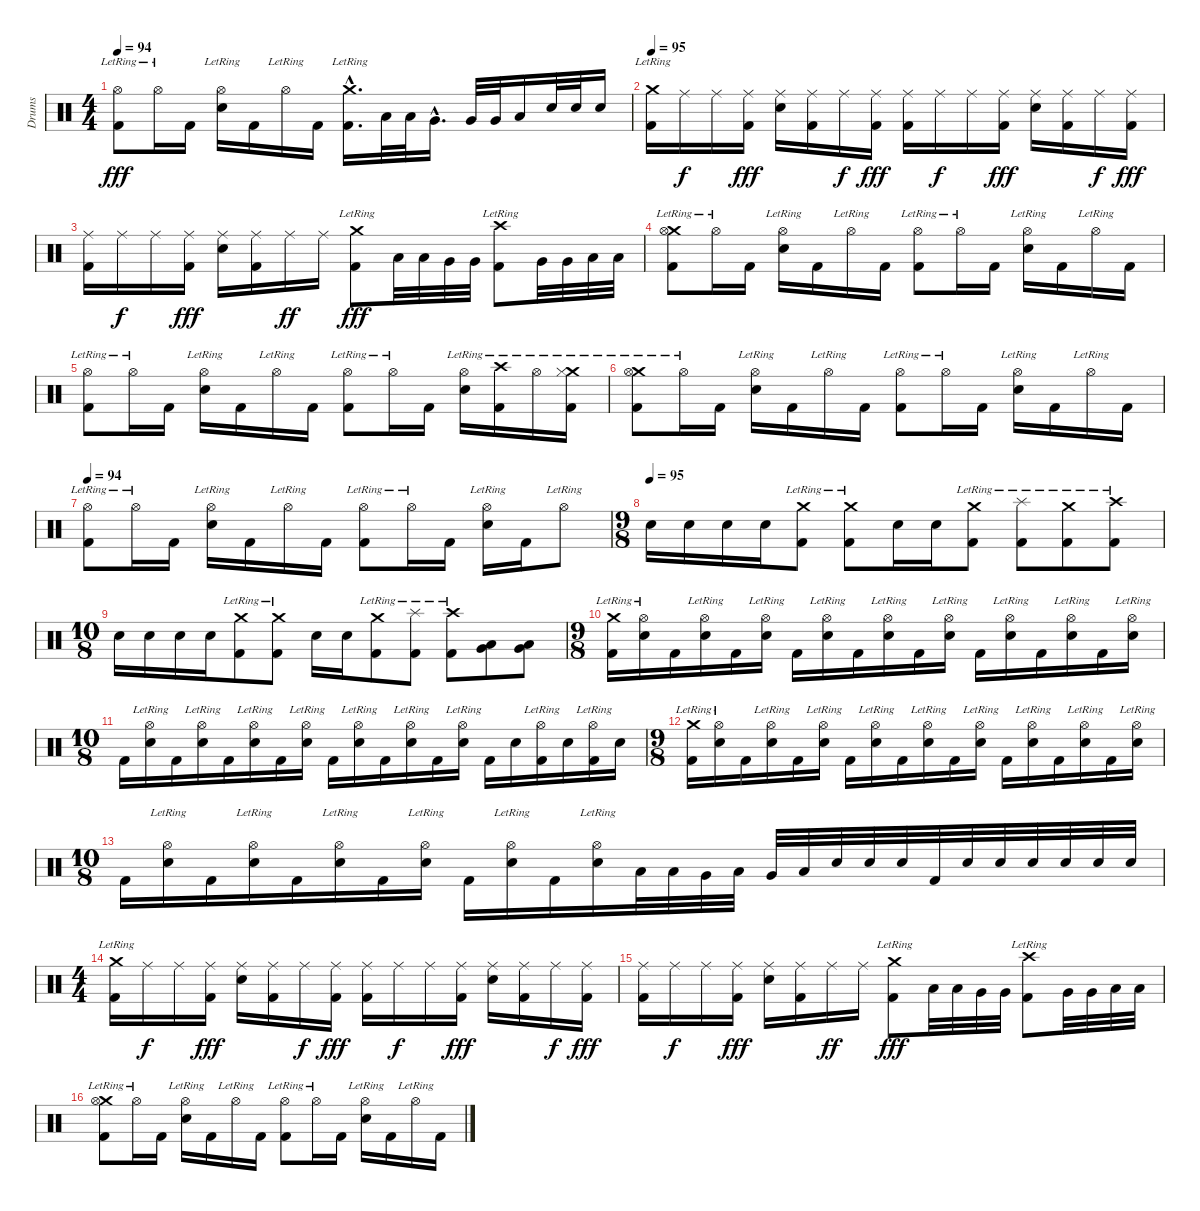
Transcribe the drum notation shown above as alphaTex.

\track ("Drums" "Drums") {instrument percussion}
\staff {score}
\articulation defaults
\ts (4 4)
\tempo 94
\clef neutral
\ks c
("Hi-Hat (open)"{lr} "Kick (hit) 2").8{dy fff} "Hi-Hat (open)"{lr}.16 "Kick (hit) 2".16 ("Hi-Hat (open)"{lr} "Electric Snare (hit)").16 "Kick (hit) 2".16 "Hi-Hat (open)"{lr}.16 "Kick (hit) 2".16 ("Crash medium (hit)"{hac lr} "Kick (hit) 2"{hac}).16{d} "Low Tom (hit)".32 "Low Tom (hit)".32 "Very Low Tom (hit)"{hac}.16{d} "Very Low Tom (hit)".32 "Very Low Tom (hit)".32 "Low Floor Tom (hit)".16 "Electric Snare (hit)".32 "Electric Snare (hit)".32 "Electric Snare (hit)".16 |
\tempo 95
("Crash medium (hit)"{lr} "Kick (hit) 2").16 "Ride (middle)".16{dy f} "Ride (middle)".16 ("Ride (middle)" "Kick (hit) 2").16{dy fff} ("Ride (middle)" "Electric Snare (hit)").16 ("Ride (middle)" "Kick (hit) 2").16 "Ride (middle)".16{dy f} ("Ride (middle)" "Kick (hit) 2").16{dy fff} ("Ride (middle)" "Kick (hit) 2").16 "Ride (middle)".16{dy f} "Ride (middle)".16 ("Ride (middle)" "Kick (hit) 2").16{dy fff} ("Ride (middle)" "Electric Snare (hit)").16 ("Ride (middle)" "Kick (hit) 2").16 "Ride (middle)".16{dy f} ("Ride (middle)" "Kick (hit) 2").16{dy fff} |
("Ride (middle)" "Kick (hit) 2").16 "Ride (middle)".16{dy f} "Ride (middle)".16 ("Ride (middle)" "Kick (hit) 2").16{dy fff} ("Ride (middle)" "Electric Snare (hit)").16 ("Ride (middle)" "Kick (hit) 2").16 "Ride (middle)".16{dy ff} "Ride (middle)".16 ("Crash medium (hit)"{lr} "Kick (hit) 2").8{dy fff} "Low Tom (hit)".32 "Low Tom (hit)".32 "Very Low Tom (hit)".32 "Very Low Tom (hit)".32 ("Crash high (hit)"{lr} "Kick (hit) 2").8 "Very Low Tom (hit)".32 "Very Low Tom (hit)".32 "Low Floor Tom (hit)".32 "Low Floor Tom (hit)".32 |
("Crash medium (hit)"{lr} "Hi-Hat (open)"{lr} "Kick (hit) 2").8 "Hi-Hat (open)"{lr}.16 "Kick (hit) 2".16 ("Hi-Hat (open)"{lr} "Electric Snare (hit)").16 "Kick (hit) 2".16 "Hi-Hat (open)"{lr}.16 "Kick (hit) 2".16 ("Hi-Hat (open)"{lr} "Kick (hit) 2").8 "Hi-Hat (open)"{lr}.16 "Kick (hit) 2".16 ("Hi-Hat (open)"{lr} "Electric Snare (hit)").16 "Kick (hit) 2".16 "Hi-Hat (open)"{lr}.16 "Kick (hit) 2".16 |
("Hi-Hat (open)"{lr} "Kick (hit) 2").8 "Hi-Hat (open)"{lr}.16 "Kick (hit) 2".16 ("Hi-Hat (open)"{lr} "Electric Snare (hit)").16 "Kick (hit) 2".16 "Hi-Hat (open)"{lr}.16 "Kick (hit) 2".16 ("Hi-Hat (open)"{lr} "Kick (hit) 2").8 "Hi-Hat (open)"{lr}.16 "Kick (hit) 2".16 ("Hi-Hat (open)"{lr} "Electric Snare (hit)").16 ("Crash high (hit)"{lr} "Kick (hit) 2").16 "Hi-Hat (open)"{lr}.16 ("Crash medium (hit)"{lr} "Hi-Hat (closed)" "Kick (hit) 2").16 |
("Crash medium (hit)"{lr} "Hi-Hat (open)"{lr} "Kick (hit) 2").8 "Hi-Hat (open)"{lr}.16 "Kick (hit) 2".16 ("Hi-Hat (open)"{lr} "Electric Snare (hit)").16 "Kick (hit) 2".16 "Hi-Hat (open)"{lr}.16 "Kick (hit) 2".16 ("Hi-Hat (open)"{lr} "Kick (hit) 2").8 "Hi-Hat (open)"{lr}.16 "Kick (hit) 2".16 ("Hi-Hat (open)"{lr} "Electric Snare (hit)").16 "Kick (hit) 2".16 "Hi-Hat (open)"{lr}.16 "Kick (hit) 2".16 |
\tempo 94
("Hi-Hat (open)"{lr} "Kick (hit) 2").8 "Hi-Hat (open)"{lr}.16 "Kick (hit) 2".16 ("Hi-Hat (open)"{lr} "Electric Snare (hit)").16 "Kick (hit) 2".16 "Hi-Hat (open)"{lr}.16 "Kick (hit) 2".16 ("Hi-Hat (open)"{lr} "Kick (hit) 2").8 "Hi-Hat (open)"{lr}.16 "Kick (hit) 2".16 ("Hi-Hat (open)"{lr} "Electric Snare (hit)").16 "Kick (hit) 2".16 "Hi-Hat (open)"{lr}.8 |
\ts (9 8)
\tempo (95)
"Electric Snare (hit)".16 "Electric Snare (hit)".16 "Electric Snare (hit)".16 "Electric Snare (hit)".16 ("Crash medium (hit)"{lr} "Kick (hit) 2").8 ("Crash medium (hit)"{lr} "Kick (hit) 2").8 "Electric Snare (hit)".16 "Electric Snare (hit)".16 ("Crash medium (hit)"{lr} "Kick (hit) 2").8 ("Splash (hit)"{lr} "Kick (hit) 2").8 ("Crash medium (hit)"{lr} "Kick (hit) 2").8 ("Crash high (hit)"{lr} "Kick (hit) 2").8 |
\ts (10 8)
"Electric Snare (hit)".16 "Electric Snare (hit)".16 "Electric Snare (hit)".16 "Electric Snare (hit)".16 ("Crash medium (hit)"{lr} "Kick (hit) 2").8 ("Crash medium (hit)"{lr} "Kick (hit) 2").8 "Electric Snare (hit)".16 "Electric Snare (hit)".16 ("Crash medium (hit)"{lr} "Kick (hit) 2").8 ("Splash (hit)"{lr} "Kick (hit) 2").8 ("Crash high (hit)"{lr} "Kick (hit) 2").8 ("Very Low Tom (hit)" "Low Floor Tom (hit)").8 ("Very Low Tom (hit)" "Low Floor Tom (hit)").8 |
\ts (9 8)
("Crash medium (hit)"{lr} "Kick (hit) 2").16 ("Hi-Hat (open)"{lr} "Electric Snare (hit)").16 "Kick (hit) 2".16 ("Hi-Hat (open)"{lr} "Electric Snare (hit)").16 "Kick (hit) 2".16 ("Hi-Hat (open)"{lr} "Electric Snare (hit)").16 "Kick (hit) 2".16 ("Hi-Hat (open)"{lr} "Electric Snare (hit)").16 "Kick (hit) 2".16 ("Hi-Hat (open)"{lr} "Electric Snare (hit)").16 "Kick (hit) 2".16 ("Hi-Hat (open)"{lr} "Electric Snare (hit)").16 "Kick (hit) 2".16 ("Hi-Hat (open)"{lr} "Electric Snare (hit)").16 "Kick (hit) 2".16 ("Hi-Hat (open)"{lr} "Electric Snare (hit)").16 "Kick (hit) 2".16 ("Hi-Hat (open)"{lr} "Electric Snare (hit)").16 |
\ts (10 8)
"Kick (hit) 2".16 ("Hi-Hat (open)"{lr} "Electric Snare (hit)").16 "Kick (hit) 2".16 ("Hi-Hat (open)"{lr} "Electric Snare (hit)").16 "Kick (hit) 2".16 ("Hi-Hat (open)"{lr} "Electric Snare (hit)").16 "Kick (hit) 2".16 ("Hi-Hat (open)"{lr} "Electric Snare (hit)").16 "Kick (hit) 2".16 ("Hi-Hat (open)"{lr} "Electric Snare (hit)").16 "Kick (hit) 2".16 ("Hi-Hat (open)"{lr} "Electric Snare (hit)").16 "Kick (hit) 2".16 ("Hi-Hat (open)"{lr} "Electric Snare (hit)").16 "Kick (hit) 2".16 "Electric Snare (hit)".16 ("Hi-Hat (open)"{lr} "Kick (hit) 2").16 "Electric Snare (hit)".16 ("Hi-Hat (open)"{lr} "Kick (hit) 2").16 "Electric Snare (hit)".16 |
\ts (9 8)
("Crash medium (hit)"{lr} "Kick (hit) 2").16 ("Hi-Hat (open)"{lr} "Electric Snare (hit)").16 "Kick (hit) 2".16 ("Hi-Hat (open)"{lr} "Electric Snare (hit)").16 "Kick (hit) 2".16 ("Hi-Hat (open)"{lr} "Electric Snare (hit)").16 "Kick (hit) 2".16 ("Hi-Hat (open)"{lr} "Electric Snare (hit)").16 "Kick (hit) 2".16 ("Hi-Hat (open)"{lr} "Electric Snare (hit)").16 "Kick (hit) 2".16 ("Hi-Hat (open)"{lr} "Electric Snare (hit)").16 "Kick (hit) 2".16 ("Hi-Hat (open)"{lr} "Electric Snare (hit)").16 "Kick (hit) 2".16 ("Hi-Hat (open)"{lr} "Electric Snare (hit)").16 "Kick (hit) 2".16 ("Hi-Hat (open)"{lr} "Electric Snare (hit)").16 |
\ts (10 8)
"Kick (hit) 2".16 ("Hi-Hat (open)"{lr} "Electric Snare (hit)").16 "Kick (hit) 2".16 ("Hi-Hat (open)"{lr} "Electric Snare (hit)").16 "Kick (hit) 2".16 ("Hi-Hat (open)"{lr} "Electric Snare (hit)").16 "Kick (hit) 2".16 ("Hi-Hat (open)"{lr} "Electric Snare (hit)").16 "Kick (hit) 2".16 ("Hi-Hat (open)"{lr} "Electric Snare (hit)").16 "Kick (hit) 2".16 ("Hi-Hat (open)"{lr} "Electric Snare (hit)").16 "Low Tom (hit)".32 "Low Tom (hit)".32 "Very Low Tom (hit)".32 "Low Floor Tom (hit)".32 "Very Low Tom (hit)".32 "Low Floor Tom (hit)".32 "Electric Snare (hit)".32 "Electric Snare (hit)".32 "Electric Snare (hit)".32 "Kick (hit) 2".32 "Electric Snare (hit)".32 "Electric Snare (hit)".32 "Electric Snare (hit)".32 "Electric Snare (hit)".32 "Electric Snare (hit)".32 "Electric Snare (hit)".32 |
\ts (4 4)
("Crash medium (hit)"{lr} "Kick (hit) 2").16 "Ride (middle)".16{dy f} "Ride (middle)".16 ("Ride (middle)" "Kick (hit) 2").16{dy fff} ("Ride (middle)" "Electric Snare (hit)").16 ("Ride (middle)" "Kick (hit) 2").16 "Ride (middle)".16{dy f} ("Ride (middle)" "Kick (hit) 2").16{dy fff} ("Ride (middle)" "Kick (hit) 2").16 "Ride (middle)".16{dy f} "Ride (middle)".16 ("Ride (middle)" "Kick (hit) 2").16{dy fff} ("Ride (middle)" "Electric Snare (hit)").16 ("Ride (middle)" "Kick (hit) 2").16 "Ride (middle)".16{dy f} ("Ride (middle)" "Kick (hit) 2").16{dy fff} |
("Ride (middle)" "Kick (hit) 2").16 "Ride (middle)".16{dy f} "Ride (middle)".16 ("Ride (middle)" "Kick (hit) 2").16{dy fff} ("Ride (middle)" "Electric Snare (hit)").16 ("Ride (middle)" "Kick (hit) 2").16 "Ride (middle)".16{dy ff} "Ride (middle)".16 ("Crash medium (hit)"{lr} "Kick (hit) 2").8{dy fff} "Low Tom (hit)".32 "Low Tom (hit)".32 "Very Low Tom (hit)".32 "Very Low Tom (hit)".32 ("Crash high (hit)"{lr} "Kick (hit) 2").8 "Very Low Tom (hit)".32 "Very Low Tom (hit)".32 "Low Floor Tom (hit)".32 "Low Floor Tom (hit)".32 |
("Crash medium (hit)"{lr} "Hi-Hat (open)"{lr} "Kick (hit) 2").8 "Hi-Hat (open)"{lr}.16 "Kick (hit) 2".16 ("Hi-Hat (open)"{lr} "Electric Snare (hit)").16 "Kick (hit) 2".16 "Hi-Hat (open)"{lr}.16 "Kick (hit) 2".16 ("Hi-Hat (open)"{lr} "Kick (hit) 2").8 "Hi-Hat (open)"{lr}.16 "Kick (hit) 2".16 ("Hi-Hat (open)"{lr} "Electric Snare (hit)").16 "Kick (hit) 2".16 "Hi-Hat (open)"{lr}.16 "Kick (hit) 2".16
